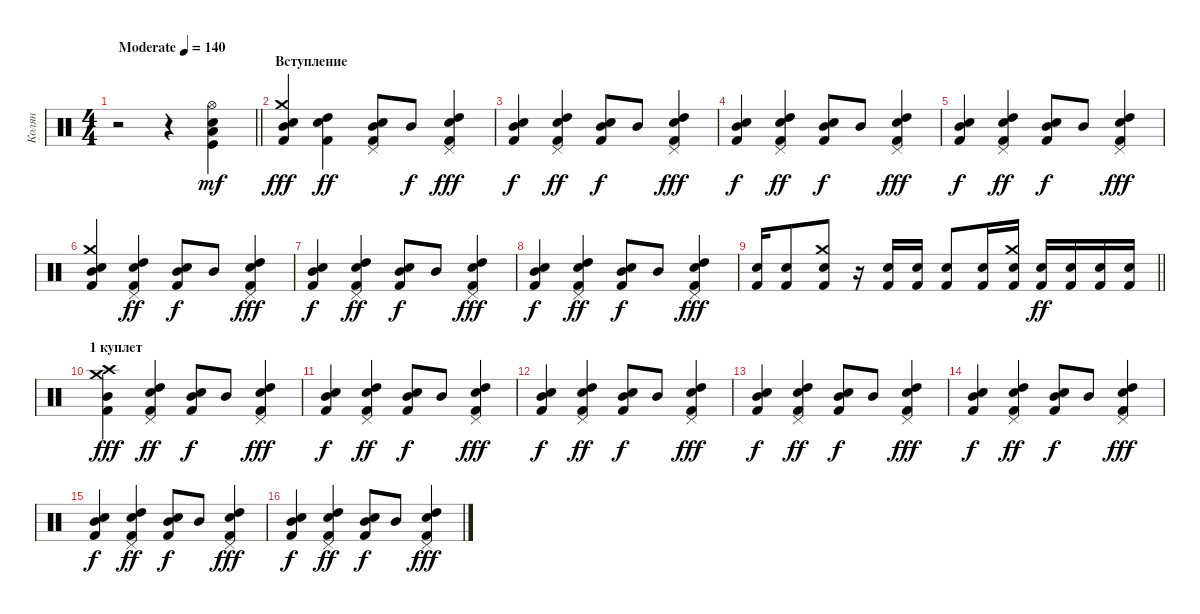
\track ("Колян" "Колян") {instrument percussion}
\staff {score}
\articulation defaults
\ts (4 4)
\tempo (140 "Moderate")
\clef neutral
\barLineRight lightlight
\ks c
r.2{dy mf} r.4 ("Snare (hit) 2" "Kick (hit)" "Hi-Hat (open)" "Low Tom (hit)").4 |
\section ("" "Вступление")
("Crash medium (hit)" "Mid Tom (hit)" "Snare (hit) 2" "Kick (hit) 2").4{dy fff} ("High Tom (hit)" "Snare (hit) 2" "Kick (hit) 2").4{dy ff} ("Pedal Hi-Hat (hit)" "Mid Tom (hit)" "Snare (hit) 2" "Kick (hit) 2").8 "Mid Tom (hit)".8{dy f} ("Pedal Hi-Hat (hit)" "High Tom (hit)" "Snare (hit) 2" "Kick (hit) 2").4{dy fff} |
("Mid Tom (hit)" "Snare (hit) 2" "Kick (hit) 2").4{dy f} ("Pedal Hi-Hat (hit)" "High Tom (hit)" "Snare (hit) 2" "Kick (hit) 2").4{dy ff} ("Mid Tom (hit)" "Snare (hit) 2" "Kick (hit) 2").8{dy f} "Mid Tom (hit)".8 ("Pedal Hi-Hat (hit)" "High Tom (hit)" "Snare (hit) 2" "Kick (hit) 2").4{dy fff} |
("Mid Tom (hit)" "Snare (hit) 2" "Kick (hit) 2").4{dy f} ("Pedal Hi-Hat (hit)" "High Tom (hit)" "Snare (hit) 2" "Kick (hit) 2").4{dy ff} ("Mid Tom (hit)" "Snare (hit) 2" "Kick (hit) 2").8{dy f} "Mid Tom (hit)".8 ("Pedal Hi-Hat (hit)" "High Tom (hit)" "Snare (hit) 2" "Kick (hit) 2").4{dy fff} |
("Mid Tom (hit)" "Snare (hit) 2" "Kick (hit) 2").4{dy f} ("Pedal Hi-Hat (hit)" "High Tom (hit)" "Snare (hit) 2" "Kick (hit) 2").4{dy ff} ("Mid Tom (hit)" "Snare (hit) 2" "Kick (hit) 2").8{dy f} "Mid Tom (hit)".8 ("Pedal Hi-Hat (hit)" "High Tom (hit)" "Snare (hit) 2" "Kick (hit) 2").4{dy fff} |
("Crash medium (hit)" "Mid Tom (hit)" "Snare (hit) 2" "Kick (hit) 2").4 ("Pedal Hi-Hat (hit)" "High Tom (hit)" "Snare (hit) 2" "Kick (hit) 2").4{dy ff} ("Mid Tom (hit)" "Snare (hit) 2" "Kick (hit) 2").8{dy f} "Mid Tom (hit)".8 ("Pedal Hi-Hat (hit)" "High Tom (hit)" "Snare (hit) 2" "Kick (hit) 2").4{dy fff} |
("Mid Tom (hit)" "Snare (hit) 2" "Kick (hit) 2").4{dy f} ("Pedal Hi-Hat (hit)" "High Tom (hit)" "Snare (hit) 2" "Kick (hit) 2").4{dy ff} ("Mid Tom (hit)" "Snare (hit) 2" "Kick (hit) 2").8{dy f} "Mid Tom (hit)".8 ("Pedal Hi-Hat (hit)" "High Tom (hit)" "Snare (hit) 2" "Kick (hit) 2").4{dy fff} |
("Mid Tom (hit)" "Snare (hit) 2" "Kick (hit) 2").4{dy f} ("Pedal Hi-Hat (hit)" "High Tom (hit)" "Snare (hit) 2" "Kick (hit) 2").4{dy ff} ("Mid Tom (hit)" "Snare (hit) 2" "Kick (hit) 2").8{dy f} "Mid Tom (hit)".8 ("Pedal Hi-Hat (hit)" "High Tom (hit)" "Snare (hit) 2" "Kick (hit) 2").4{dy fff} |
\barLineRight lightlight
("Snare (hit) 2" "Kick (hit) 2").16 ("Snare (hit) 2" "Kick (hit) 2").8 ("Crash medium (hit)" "Snare (hit) 2" "Kick (hit) 2").8 r.16 ("Snare (hit) 2" "Kick (hit) 2").16 ("Snare (hit) 2" "Kick (hit) 2").16 ("Snare (hit) 2" "Kick (hit) 2").8 ("Snare (hit) 2" "Kick (hit) 2").16 ("Crash medium (hit)" "Snare (hit) 2" "Kick (hit) 2").16 ("Snare (hit) 2" "Kick (hit) 2").16{dy ff} ("Snare (hit) 2" "Kick (hit) 2").16 ("Snare (hit) 2" "Kick (hit) 2").16 ("Snare (hit) 2" "Kick (hit) 2").16 |
\section ("" "1 куплет")
("Crash medium (hit)" "Mid Tom (hit)" "Crash high (hit)" "Kick (hit) 2").4{dy fff} ("Pedal Hi-Hat (hit)" "High Tom (hit)" "Snare (hit) 2" "Kick (hit) 2").4{dy ff} ("Mid Tom (hit)" "Snare (hit) 2" "Kick (hit) 2").8{dy f} "Mid Tom (hit)".8 ("Pedal Hi-Hat (hit)" "High Tom (hit)" "Snare (hit) 2" "Kick (hit) 2").4{dy fff} |
("Mid Tom (hit)" "Snare (hit) 2" "Kick (hit) 2").4{dy f} ("Pedal Hi-Hat (hit)" "High Tom (hit)" "Snare (hit) 2" "Kick (hit) 2").4{dy ff} ("Mid Tom (hit)" "Snare (hit) 2" "Kick (hit) 2").8{dy f} "Mid Tom (hit)".8 ("Pedal Hi-Hat (hit)" "High Tom (hit)" "Snare (hit) 2" "Kick (hit) 2").4{dy fff} |
("Mid Tom (hit)" "Snare (hit) 2" "Kick (hit) 2").4{dy f} ("Pedal Hi-Hat (hit)" "High Tom (hit)" "Snare (hit) 2" "Kick (hit) 2").4{dy ff} ("Mid Tom (hit)" "Snare (hit) 2" "Kick (hit) 2").8{dy f} "Mid Tom (hit)".8 ("Pedal Hi-Hat (hit)" "High Tom (hit)" "Snare (hit) 2" "Kick (hit) 2").4{dy fff} |
("Mid Tom (hit)" "Snare (hit) 2" "Kick (hit) 2").4{dy f} ("Pedal Hi-Hat (hit)" "High Tom (hit)" "Snare (hit) 2" "Kick (hit) 2").4{dy ff} ("Mid Tom (hit)" "Snare (hit) 2" "Kick (hit) 2").8{dy f} "Mid Tom (hit)".8 ("Pedal Hi-Hat (hit)" "High Tom (hit)" "Snare (hit) 2" "Kick (hit) 2").4{dy fff} |
("Mid Tom (hit)" "Snare (hit) 2" "Kick (hit) 2").4{dy f} ("Pedal Hi-Hat (hit)" "High Tom (hit)" "Snare (hit) 2" "Kick (hit) 2").4{dy ff} ("Mid Tom (hit)" "Snare (hit) 2" "Kick (hit) 2").8{dy f} "Mid Tom (hit)".8 ("Pedal Hi-Hat (hit)" "High Tom (hit)" "Snare (hit) 2" "Kick (hit) 2").4{dy fff} |
("Mid Tom (hit)" "Snare (hit) 2" "Kick (hit) 2").4{dy f} ("Pedal Hi-Hat (hit)" "High Tom (hit)" "Snare (hit) 2" "Kick (hit) 2").4{dy ff} ("Mid Tom (hit)" "Snare (hit) 2" "Kick (hit) 2").8{dy f} "Mid Tom (hit)".8 ("Pedal Hi-Hat (hit)" "High Tom (hit)" "Snare (hit) 2" "Kick (hit) 2").4{dy fff} |
("Mid Tom (hit)" "Snare (hit) 2" "Kick (hit) 2").4{dy f} ("Pedal Hi-Hat (hit)" "High Tom (hit)" "Snare (hit) 2" "Kick (hit) 2").4{dy ff} ("Mid Tom (hit)" "Snare (hit) 2" "Kick (hit) 2").8{dy f} "Mid Tom (hit)".8 ("Pedal Hi-Hat (hit)" "High Tom (hit)" "Snare (hit) 2" "Kick (hit) 2").4{dy fff}
